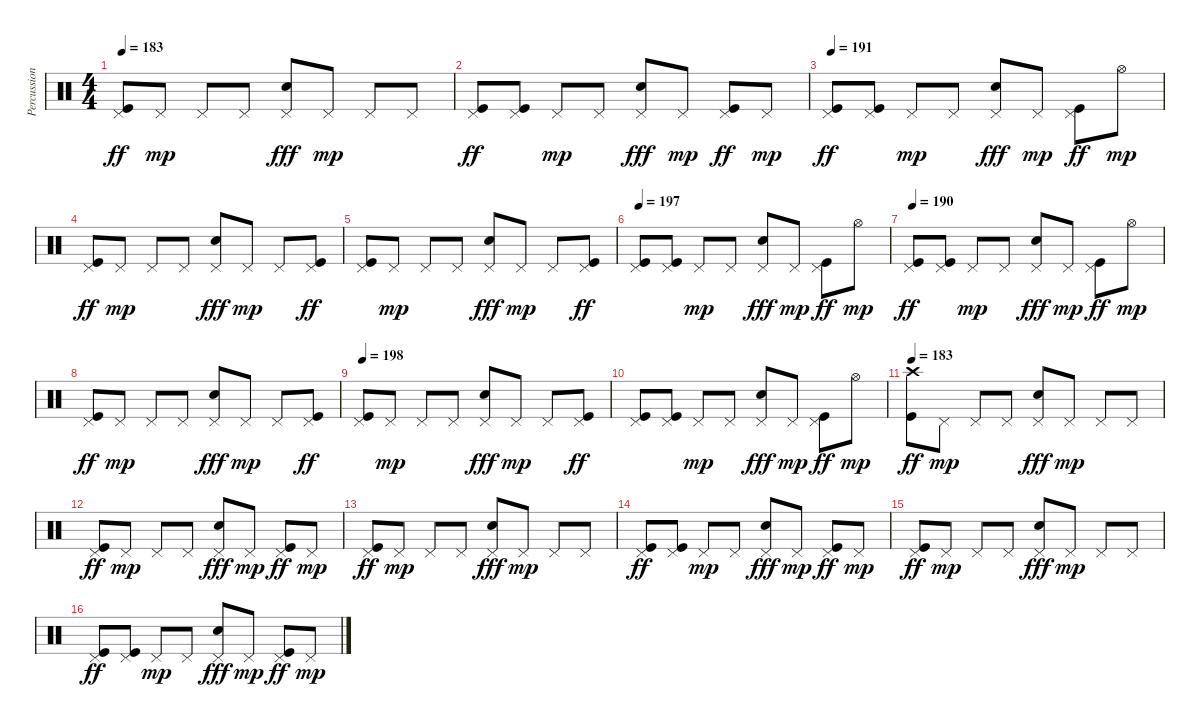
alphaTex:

\track ("Percussion" "Percussion") {instrument percussion}
\staff {score}
\articulation defaults
\ts (4 4)
\tempo 183
\clef neutral
\ks c
("Pedal Hi-Hat (hit)" "Kick (hit)").8{dy ff} "Pedal Hi-Hat (hit)".8{dy mp} "Pedal Hi-Hat (hit)".8 "Pedal Hi-Hat (hit)".8 ("Pedal Hi-Hat (hit)" "Snare (hit) 2").8{dy fff} "Pedal Hi-Hat (hit)".8{dy mp} "Pedal Hi-Hat (hit)".8 "Pedal Hi-Hat (hit)".8 |
("Pedal Hi-Hat (hit)" "Kick (hit)").8{dy ff} ("Pedal Hi-Hat (hit)" "Kick (hit)").8 "Pedal Hi-Hat (hit)".8{dy mp} "Pedal Hi-Hat (hit)".8 ("Pedal Hi-Hat (hit)" "Snare (hit) 2").8{dy fff} "Pedal Hi-Hat (hit)".8{dy mp} ("Pedal Hi-Hat (hit)" "Kick (hit)").8{dy ff} "Pedal Hi-Hat (hit)".8{dy mp} |
\tempo 191
("Pedal Hi-Hat (hit)" "Kick (hit)").8{dy ff} ("Pedal Hi-Hat (hit)" "Kick (hit)").8 "Pedal Hi-Hat (hit)".8{dy mp} "Pedal Hi-Hat (hit)".8 ("Pedal Hi-Hat (hit)" "Snare (hit) 2").8{dy fff} "Pedal Hi-Hat (hit)".8{dy mp} ("Pedal Hi-Hat (hit)" "Kick (hit)").8{dy ff} "Hi-Hat (open)".8{dy mp} |
("Pedal Hi-Hat (hit)" "Kick (hit)").8{dy ff} "Pedal Hi-Hat (hit)".8{dy mp} "Pedal Hi-Hat (hit)".8 "Pedal Hi-Hat (hit)".8 ("Pedal Hi-Hat (hit)" "Snare (hit) 2").8{dy fff} "Pedal Hi-Hat (hit)".8{dy mp} "Pedal Hi-Hat (hit)".8 ("Pedal Hi-Hat (hit)" "Kick (hit)").8{dy ff} |
("Pedal Hi-Hat (hit)" "Kick (hit)").8 "Pedal Hi-Hat (hit)".8{dy mp} "Pedal Hi-Hat (hit)".8 "Pedal Hi-Hat (hit)".8 ("Pedal Hi-Hat (hit)" "Snare (hit) 2").8{dy fff} "Pedal Hi-Hat (hit)".8{dy mp} "Pedal Hi-Hat (hit)".8 ("Pedal Hi-Hat (hit)" "Kick (hit)").8{dy ff} |
\tempo 197
("Pedal Hi-Hat (hit)" "Kick (hit)").8 ("Pedal Hi-Hat (hit)" "Kick (hit)").8 "Pedal Hi-Hat (hit)".8{dy mp} "Pedal Hi-Hat (hit)".8 ("Pedal Hi-Hat (hit)" "Snare (hit) 2").8{dy fff} "Pedal Hi-Hat (hit)".8{dy mp} ("Pedal Hi-Hat (hit)" "Kick (hit)").8{dy ff} "Hi-Hat (open)".8{dy mp} |
\tempo 190
("Pedal Hi-Hat (hit)" "Kick (hit)").8{dy ff} ("Pedal Hi-Hat (hit)" "Kick (hit)").8 "Pedal Hi-Hat (hit)".8{dy mp} "Pedal Hi-Hat (hit)".8 ("Pedal Hi-Hat (hit)" "Snare (hit) 2").8{dy fff} "Pedal Hi-Hat (hit)".8{dy mp} ("Pedal Hi-Hat (hit)" "Kick (hit)").8{dy ff} "Hi-Hat (open)".8{dy mp} |
("Pedal Hi-Hat (hit)" "Kick (hit)").8{dy ff} "Pedal Hi-Hat (hit)".8{dy mp} "Pedal Hi-Hat (hit)".8 "Pedal Hi-Hat (hit)".8 ("Pedal Hi-Hat (hit)" "Snare (hit) 2").8{dy fff} "Pedal Hi-Hat (hit)".8{dy mp} "Pedal Hi-Hat (hit)".8 ("Pedal Hi-Hat (hit)" "Kick (hit)").8{dy ff} |
\tempo 198
("Pedal Hi-Hat (hit)" "Kick (hit)").8 "Pedal Hi-Hat (hit)".8{dy mp} "Pedal Hi-Hat (hit)".8 "Pedal Hi-Hat (hit)".8 ("Pedal Hi-Hat (hit)" "Snare (hit) 2").8{dy fff} "Pedal Hi-Hat (hit)".8{dy mp} "Pedal Hi-Hat (hit)".8 ("Pedal Hi-Hat (hit)" "Kick (hit)").8{dy ff} |
("Pedal Hi-Hat (hit)" "Kick (hit)").8 ("Pedal Hi-Hat (hit)" "Kick (hit)").8 "Pedal Hi-Hat (hit)".8{dy mp} "Pedal Hi-Hat (hit)".8 ("Pedal Hi-Hat (hit)" "Snare (hit) 2").8{dy fff} "Pedal Hi-Hat (hit)".8{dy mp} ("Pedal Hi-Hat (hit)" "Kick (hit)").8{dy ff} "Hi-Hat (open)".8{dy mp} |
\tempo 183
("Crash high (hit)" "Kick (hit)").8{dy ff} "Pedal Hi-Hat (hit)".8{dy mp} "Pedal Hi-Hat (hit)".8 "Pedal Hi-Hat (hit)".8 ("Pedal Hi-Hat (hit)" "Snare (hit) 2").8{dy fff} "Pedal Hi-Hat (hit)".8{dy mp} "Pedal Hi-Hat (hit)".8 "Pedal Hi-Hat (hit)".8 |
("Pedal Hi-Hat (hit)" "Kick (hit)").8{dy ff} "Pedal Hi-Hat (hit)".8{dy mp} "Pedal Hi-Hat (hit)".8 "Pedal Hi-Hat (hit)".8 ("Pedal Hi-Hat (hit)" "Snare (hit) 2").8{dy fff} "Pedal Hi-Hat (hit)".8{dy mp} ("Pedal Hi-Hat (hit)" "Kick (hit)").8{dy ff} "Pedal Hi-Hat (hit)".8{dy mp} |
("Pedal Hi-Hat (hit)" "Kick (hit)").8{dy ff} "Pedal Hi-Hat (hit)".8{dy mp} "Pedal Hi-Hat (hit)".8 "Pedal Hi-Hat (hit)".8 ("Pedal Hi-Hat (hit)" "Snare (hit) 2").8{dy fff} "Pedal Hi-Hat (hit)".8{dy mp} "Pedal Hi-Hat (hit)".8 "Pedal Hi-Hat (hit)".8 |
("Pedal Hi-Hat (hit)" "Kick (hit)").8{dy ff} ("Pedal Hi-Hat (hit)" "Kick (hit)").8 "Pedal Hi-Hat (hit)".8{dy mp} "Pedal Hi-Hat (hit)".8 ("Pedal Hi-Hat (hit)" "Snare (hit) 2").8{dy fff} "Pedal Hi-Hat (hit)".8{dy mp} ("Pedal Hi-Hat (hit)" "Kick (hit)").8{dy ff} "Pedal Hi-Hat (hit)".8{dy mp} |
("Pedal Hi-Hat (hit)" "Kick (hit)").8{dy ff} "Pedal Hi-Hat (hit)".8{dy mp} "Pedal Hi-Hat (hit)".8 "Pedal Hi-Hat (hit)".8 ("Pedal Hi-Hat (hit)" "Snare (hit) 2").8{dy fff} "Pedal Hi-Hat (hit)".8{dy mp} "Pedal Hi-Hat (hit)".8 "Pedal Hi-Hat (hit)".8 |
("Pedal Hi-Hat (hit)" "Kick (hit)").8{dy ff} ("Pedal Hi-Hat (hit)" "Kick (hit)").8 "Pedal Hi-Hat (hit)".8{dy mp} "Pedal Hi-Hat (hit)".8 ("Pedal Hi-Hat (hit)" "Snare (hit) 2").8{dy fff} "Pedal Hi-Hat (hit)".8{dy mp} ("Pedal Hi-Hat (hit)" "Kick (hit)").8{dy ff} "Pedal Hi-Hat (hit)".8{dy mp}
